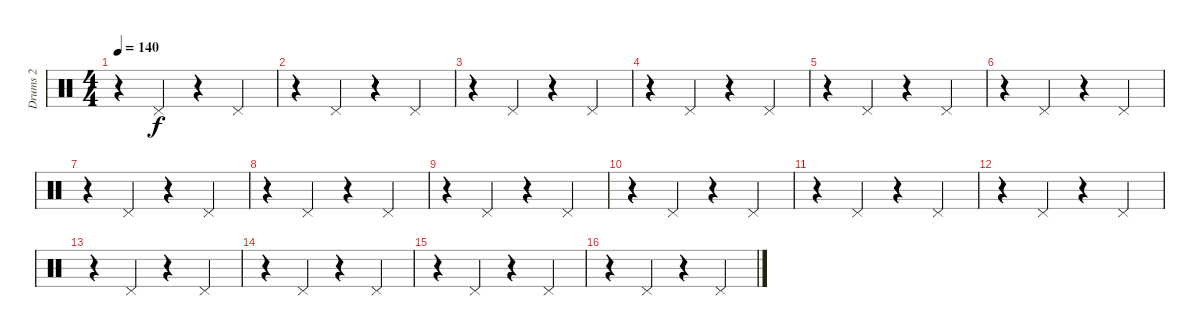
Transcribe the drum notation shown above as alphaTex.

\track ("Drums 2" "Drums 2") {instrument percussion}
\staff {score}
\articulation defaults
\ts (4 4)
\tempo 140
\clef neutral
\ks c
r.4{dy f} "Pedal Hi-Hat (hit)".4 r.4 "Pedal Hi-Hat (hit)".4 |
r.4 "Pedal Hi-Hat (hit)".4 r.4 "Pedal Hi-Hat (hit)".4 |
r.4 "Pedal Hi-Hat (hit)".4 r.4 "Pedal Hi-Hat (hit)".4 |
r.4 "Pedal Hi-Hat (hit)".4 r.4 "Pedal Hi-Hat (hit)".4 |
r.4 "Pedal Hi-Hat (hit)".4 r.4 "Pedal Hi-Hat (hit)".4 |
r.4 "Pedal Hi-Hat (hit)".4 r.4 "Pedal Hi-Hat (hit)".4 |
r.4 "Pedal Hi-Hat (hit)".4 r.4 "Pedal Hi-Hat (hit)".4 |
r.4 "Pedal Hi-Hat (hit)".4 r.4 "Pedal Hi-Hat (hit)".4 |
r.4 "Pedal Hi-Hat (hit)".4 r.4 "Pedal Hi-Hat (hit)".4 |
r.4 "Pedal Hi-Hat (hit)".4 r.4 "Pedal Hi-Hat (hit)".4 |
r.4 "Pedal Hi-Hat (hit)".4 r.4 "Pedal Hi-Hat (hit)".4 |
r.4 "Pedal Hi-Hat (hit)".4 r.4 "Pedal Hi-Hat (hit)".4 |
r.4 "Pedal Hi-Hat (hit)".4 r.4 "Pedal Hi-Hat (hit)".4 |
r.4 "Pedal Hi-Hat (hit)".4 r.4 "Pedal Hi-Hat (hit)".4 |
r.4 "Pedal Hi-Hat (hit)".4 r.4 "Pedal Hi-Hat (hit)".4 |
r.4 "Pedal Hi-Hat (hit)".4 r.4 "Pedal Hi-Hat (hit)".4
